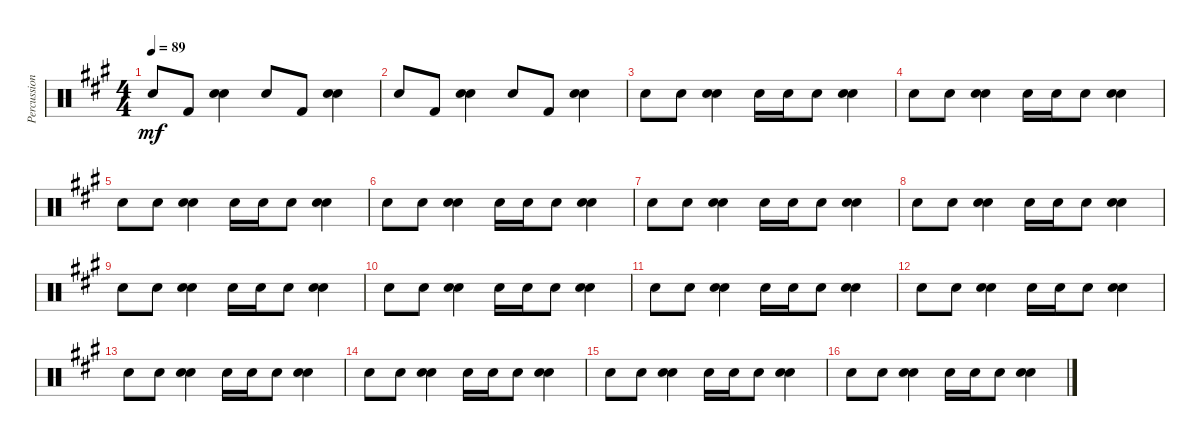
\track ("Percussions" "Percussion") {instrument percussion}
\staff {score}
\articulation defaults
\ts (4 4)
\tempo 89
\clef neutral
\ks a "Electric Snare (hit)".8{dy mf} "Kick (hit) 2".8
("Snare (hit) 2" "Electric Snare (hit)").4 "Electric Snare (hit)".8 "Kick (hit) 2".8 ("Snare (hit) 2" "Electric Snare (hit)").4 |
"Electric Snare (hit)".8 "Kick (hit) 2".8 ("Snare (hit) 2" "Electric Snare (hit)").4 "Electric Snare (hit)".8 "Kick (hit) 2".8 ("Snare (hit) 2" "Electric Snare (hit)").4 |
"Electric Snare (hit)".8 "Electric Snare (hit)".8 ("Snare (hit) 2" "Electric Snare (hit)").4 "Electric Snare (hit)".16 "Electric Snare (hit)".16 "Electric Snare (hit)".8 ("Snare (hit) 2" "Electric Snare (hit)").4 |
"Electric Snare (hit)".8 "Electric Snare (hit)".8 ("Snare (hit) 2" "Electric Snare (hit)").4 "Electric Snare (hit)".16 "Electric Snare (hit)".16 "Electric Snare (hit)".8 ("Snare (hit) 2" "Electric Snare (hit)").4 |
"Electric Snare (hit)".8 "Electric Snare (hit)".8 ("Snare (hit) 2" "Electric Snare (hit)").4 "Electric Snare (hit)".16 "Electric Snare (hit)".16 "Electric Snare (hit)".8 ("Snare (hit) 2" "Electric Snare (hit)").4 |
"Electric Snare (hit)".8 "Electric Snare (hit)".8 ("Snare (hit) 2" "Electric Snare (hit)").4 "Electric Snare (hit)".16 "Electric Snare (hit)".16 "Electric Snare (hit)".8 ("Snare (hit) 2" "Electric Snare (hit)").4 |
"Electric Snare (hit)".8 "Electric Snare (hit)".8 ("Snare (hit) 2" "Electric Snare (hit)").4 "Electric Snare (hit)".16 "Electric Snare (hit)".16 "Electric Snare (hit)".8 ("Snare (hit) 2" "Electric Snare (hit)").4 |
"Electric Snare (hit)".8 "Electric Snare (hit)".8 ("Snare (hit) 2" "Electric Snare (hit)").4 "Electric Snare (hit)".16 "Electric Snare (hit)".16 "Electric Snare (hit)".8 ("Snare (hit) 2" "Electric Snare (hit)").4 |
"Electric Snare (hit)".8 "Electric Snare (hit)".8 ("Snare (hit) 2" "Electric Snare (hit)").4 "Electric Snare (hit)".16 "Electric Snare (hit)".16 "Electric Snare (hit)".8 ("Snare (hit) 2" "Electric Snare (hit)").4 |
"Electric Snare (hit)".8 "Electric Snare (hit)".8 ("Snare (hit) 2" "Electric Snare (hit)").4 "Electric Snare (hit)".16 "Electric Snare (hit)".16 "Electric Snare (hit)".8 ("Snare (hit) 2" "Electric Snare (hit)").4 |
"Electric Snare (hit)".8 "Electric Snare (hit)".8 ("Snare (hit) 2" "Electric Snare (hit)").4 "Electric Snare (hit)".16 "Electric Snare (hit)".16 "Electric Snare (hit)".8 ("Snare (hit) 2" "Electric Snare (hit)").4 |
"Electric Snare (hit)".8 "Electric Snare (hit)".8 ("Snare (hit) 2" "Electric Snare (hit)").4 "Electric Snare (hit)".16 "Electric Snare (hit)".16 "Electric Snare (hit)".8 ("Snare (hit) 2" "Electric Snare (hit)").4 |
"Electric Snare (hit)".8 "Electric Snare (hit)".8 ("Snare (hit) 2" "Electric Snare (hit)").4 "Electric Snare (hit)".16 "Electric Snare (hit)".16 "Electric Snare (hit)".8 ("Snare (hit) 2" "Electric Snare (hit)").4 |
"Electric Snare (hit)".8 "Electric Snare (hit)".8 ("Snare (hit) 2" "Electric Snare (hit)").4 "Electric Snare (hit)".16 "Electric Snare (hit)".16 "Electric Snare (hit)".8 ("Snare (hit) 2" "Electric Snare (hit)").4 |
"Electric Snare (hit)".8 "Electric Snare (hit)".8 ("Snare (hit) 2" "Electric Snare (hit)").4 "Electric Snare (hit)".16 "Electric Snare (hit)".16 "Electric Snare (hit)".8 ("Snare (hit) 2" "Electric Snare (hit)").4 |
"Electric Snare (hit)".8 "Electric Snare (hit)".8 ("Snare (hit) 2" "Electric Snare (hit)").4 "Electric Snare (hit)".16 "Electric Snare (hit)".16 "Electric Snare (hit)".8 ("Snare (hit) 2" "Electric Snare (hit)").4
